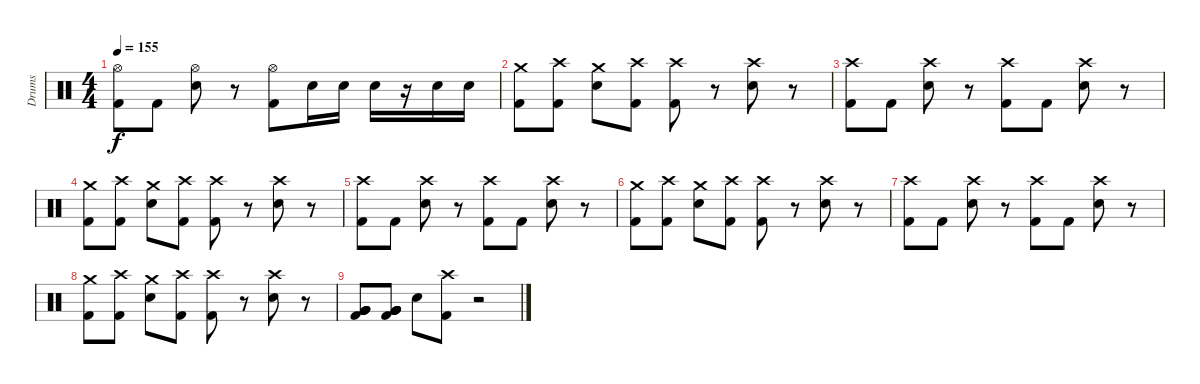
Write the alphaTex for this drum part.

\track ("Drums" "Drums") {instrument percussion}
\staff {score}
\articulation defaults
\ts (4 4)
\tempo 155
\clef neutral
\ks c
("Hi-Hat (open)" "Kick (hit) 2").8{dy f} "Kick (hit) 2".8 ("Hi-Hat (open)" "Snare (hit) 2").8 r.8 ("Hi-Hat (open)" "Kick (hit) 2").8 "Snare (hit) 2".16 "Snare (hit) 2".16 "Snare (hit) 2".16 r.16 "Snare (hit) 2".16 "Snare (hit) 2".16 |
("Crash medium (hit)" "Kick (hit) 2").8 ("Crash high (hit)" "Kick (hit) 2").8 ("Crash medium (hit)" "Snare (hit) 2").8 ("Crash high (hit)" "Kick (hit) 2").8 ("Crash high (hit)" "Kick (hit) 2").8 r.8 ("Crash high (hit)" "Snare (hit) 2").8 r.8 |
("Crash high (hit)" "Kick (hit) 2").8 "Kick (hit) 2".8 ("Crash high (hit)" "Snare (hit) 2").8 r.8 ("Crash high (hit)" "Kick (hit) 2").8 "Kick (hit) 2".8 ("Crash high (hit)" "Snare (hit) 2").8 r.8 |
("Crash medium (hit)" "Kick (hit) 2").8 ("Crash high (hit)" "Kick (hit) 2").8 ("Crash medium (hit)" "Snare (hit) 2").8 ("Crash high (hit)" "Kick (hit) 2").8 ("Crash high (hit)" "Kick (hit) 2").8 r.8 ("Crash high (hit)" "Snare (hit) 2").8 r.8 |
("Crash high (hit)" "Kick (hit) 2").8 "Kick (hit) 2".8 ("Crash high (hit)" "Snare (hit) 2").8 r.8 ("Crash high (hit)" "Kick (hit) 2").8 "Kick (hit) 2".8 ("Crash high (hit)" "Snare (hit) 2").8 r.8 |
("Crash medium (hit)" "Kick (hit) 2").8 ("Crash high (hit)" "Kick (hit) 2").8 ("Crash medium (hit)" "Snare (hit) 2").8 ("Crash high (hit)" "Kick (hit) 2").8 ("Crash high (hit)" "Kick (hit) 2").8 r.8 ("Crash high (hit)" "Snare (hit) 2").8 r.8 |
("Crash high (hit)" "Kick (hit) 2").8 "Kick (hit) 2".8 ("Crash high (hit)" "Snare (hit) 2").8 r.8 ("Crash high (hit)" "Kick (hit) 2").8 "Kick (hit) 2".8 ("Crash high (hit)" "Snare (hit) 2").8 r.8 |
("Crash medium (hit)" "Kick (hit) 2").8 ("Crash high (hit)" "Kick (hit) 2").8 ("Crash medium (hit)" "Snare (hit) 2").8 ("Crash high (hit)" "Kick (hit) 2").8 ("Crash high (hit)" "Kick (hit) 2").8 r.8 ("Crash high (hit)" "Snare (hit) 2").8 r.8 |
("Kick (hit) 2" "Very Low Tom (hit)" "Very Low Tom (hit)" "Very Low Tom (hit)" "Very Low Tom (hit)").8 ("Kick (hit) 2" "Very Low Tom (hit)" "Very Low Tom (hit)" "Very Low Tom (hit)" "Very Low Tom (hit)").8 "Snare (hit) 2".8 ("Kick (hit) 2" "Crash high (hit)").8 r.2
